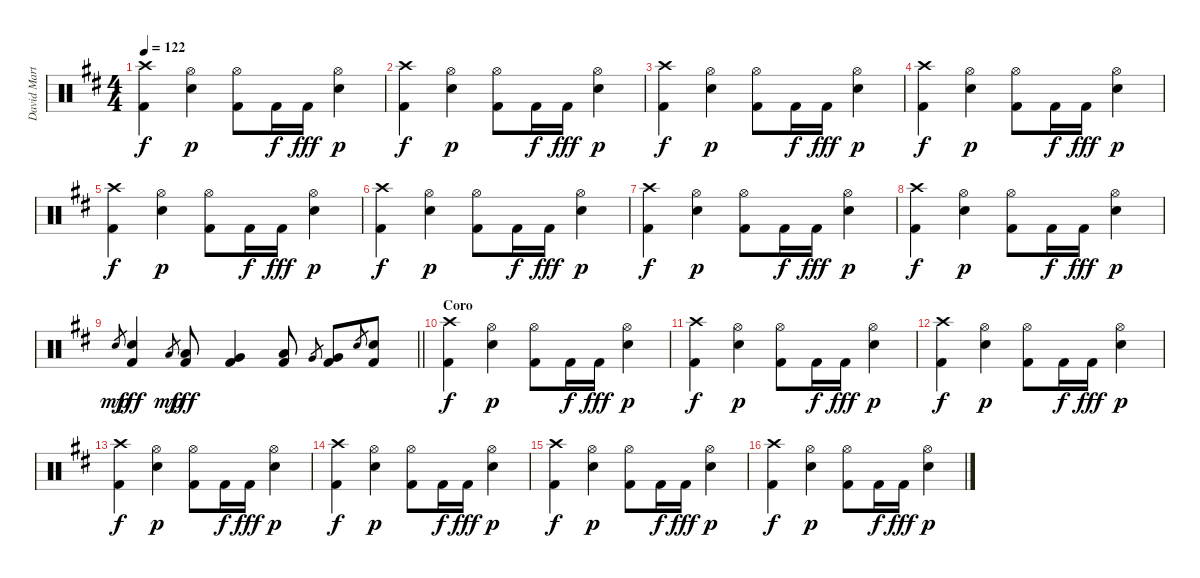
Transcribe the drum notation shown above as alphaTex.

\track ("David Martinez" "David Mart") {instrument percussion}
\staff {score}
\articulation defaults
\ts (4 4)
\tempo 122
\clef neutral
\ks d
("Crash high (hit)" "Kick (hit) 2").4{dy f} ("Hi-Hat (open)" "Snare (hit) 2").4{dy p} ("Hi-Hat (open)" "Kick (hit) 2").8 "Kick (hit) 2".16{dy f} "Kick (hit) 2".16{dy fff} ("Hi-Hat (open)" "Snare (hit) 2").4{dy p} |
("Crash high (hit)" "Kick (hit) 2").4{dy f} ("Hi-Hat (open)" "Snare (hit) 2").4{dy p} ("Hi-Hat (open)" "Kick (hit) 2").8 "Kick (hit) 2".16{dy f} "Kick (hit) 2".16{dy fff} ("Hi-Hat (open)" "Snare (hit) 2").4{dy p} |
("Crash high (hit)" "Kick (hit) 2").4{dy f} ("Hi-Hat (open)" "Snare (hit) 2").4{dy p} ("Hi-Hat (open)" "Kick (hit) 2").8 "Kick (hit) 2".16{dy f} "Kick (hit) 2".16{dy fff} ("Hi-Hat (open)" "Snare (hit) 2").4{dy p} |
("Crash high (hit)" "Kick (hit) 2").4{dy f volume 16} ("Hi-Hat (open)" "Snare (hit) 2").4{dy p} ("Hi-Hat (open)" "Kick (hit) 2").8 "Kick (hit) 2".16{dy f} "Kick (hit) 2".16{dy fff} ("Hi-Hat (open)" "Snare (hit) 2").4{dy p} |
("Crash high (hit)" "Kick (hit) 2").4{dy f} ("Hi-Hat (open)" "Snare (hit) 2").4{dy p} ("Hi-Hat (open)" "Kick (hit) 2").8 "Kick (hit) 2".16{dy f} "Kick (hit) 2".16{dy fff} ("Hi-Hat (open)" "Snare (hit) 2").4{dy p} |
("Crash high (hit)" "Kick (hit) 2").4{dy f} ("Hi-Hat (open)" "Snare (hit) 2").4{dy p} ("Hi-Hat (open)" "Kick (hit) 2").8 "Kick (hit) 2".16{dy f} "Kick (hit) 2".16{dy fff} ("Hi-Hat (open)" "Snare (hit) 2").4{dy p} |
("Crash high (hit)" "Kick (hit) 2").4{dy f} ("Hi-Hat (open)" "Snare (hit) 2").4{dy p} ("Hi-Hat (open)" "Kick (hit) 2").8 "Kick (hit) 2".16{dy f} "Kick (hit) 2".16{dy fff} ("Hi-Hat (open)" "Snare (hit) 2").4{dy p} |
("Crash high (hit)" "Kick (hit) 2").4{dy f volume 16} ("Hi-Hat (open)" "Snare (hit) 2").4{dy p} ("Hi-Hat (open)" "Kick (hit) 2").8 "Kick (hit) 2".16{dy f} "Kick (hit) 2".16{dy fff} ("Hi-Hat (open)" "Snare (hit) 2").4{dy p} |
\barLineRight lightlight "Snare (hit) 2".8{gr dy mp}
("Snare (hit) 2" "Kick (hit) 2").4{dy fff} "Low Floor Tom (hit)".8{gr dy mp} ("Low Floor Tom (hit)" "Kick (hit) 2").8{dy fff} ("Kick (hit) 2" "Very Low Tom (hit)").4 ("Low Tom (hit)" "Kick (hit) 2").8 "Very Low Tom (hit)".8{gr} ("Kick (hit) 2" "Very Low Tom (hit)").8 "Snare (hit) 2".8{gr} ("Snare (hit) 2" "Kick (hit) 2").8 |
\section ("" "Coro")
("Crash high (hit)" "Kick (hit) 2").4{dy f} ("Hi-Hat (open)" "Snare (hit) 2").4{dy p} ("Hi-Hat (open)" "Kick (hit) 2").8 "Kick (hit) 2".16{dy f} "Kick (hit) 2".16{dy fff} ("Hi-Hat (open)" "Snare (hit) 2").4{dy p} |
("Crash high (hit)" "Kick (hit) 2").4{dy f} ("Hi-Hat (open)" "Snare (hit) 2").4{dy p} ("Hi-Hat (open)" "Kick (hit) 2").8 "Kick (hit) 2".16{dy f} "Kick (hit) 2".16{dy fff} ("Hi-Hat (open)" "Snare (hit) 2").4{dy p} |
("Crash high (hit)" "Kick (hit) 2").4{dy f} ("Hi-Hat (open)" "Snare (hit) 2").4{dy p} ("Hi-Hat (open)" "Kick (hit) 2").8 "Kick (hit) 2".16{dy f} "Kick (hit) 2".16{dy fff} ("Hi-Hat (open)" "Snare (hit) 2").4{dy p} |
("Crash high (hit)" "Kick (hit) 2").4{dy f} ("Hi-Hat (open)" "Snare (hit) 2").4{dy p} ("Hi-Hat (open)" "Kick (hit) 2").8 "Kick (hit) 2".16{dy f} "Kick (hit) 2".16{dy fff} ("Hi-Hat (open)" "Snare (hit) 2").4{dy p} |
("Crash high (hit)" "Kick (hit) 2").4{dy f} ("Hi-Hat (open)" "Snare (hit) 2").4{dy p} ("Hi-Hat (open)" "Kick (hit) 2").8 "Kick (hit) 2".16{dy f} "Kick (hit) 2".16{dy fff} ("Hi-Hat (open)" "Snare (hit) 2").4{dy p} |
("Crash high (hit)" "Kick (hit) 2").4{dy f} ("Hi-Hat (open)" "Snare (hit) 2").4{dy p} ("Hi-Hat (open)" "Kick (hit) 2").8 "Kick (hit) 2".16{dy f} "Kick (hit) 2".16{dy fff} ("Hi-Hat (open)" "Snare (hit) 2").4{dy p} |
("Crash high (hit)" "Kick (hit) 2").4{dy f} ("Hi-Hat (open)" "Snare (hit) 2").4{dy p} ("Hi-Hat (open)" "Kick (hit) 2").8 "Kick (hit) 2".16{dy f} "Kick (hit) 2".16{dy fff} ("Hi-Hat (open)" "Snare (hit) 2").4{dy p}
